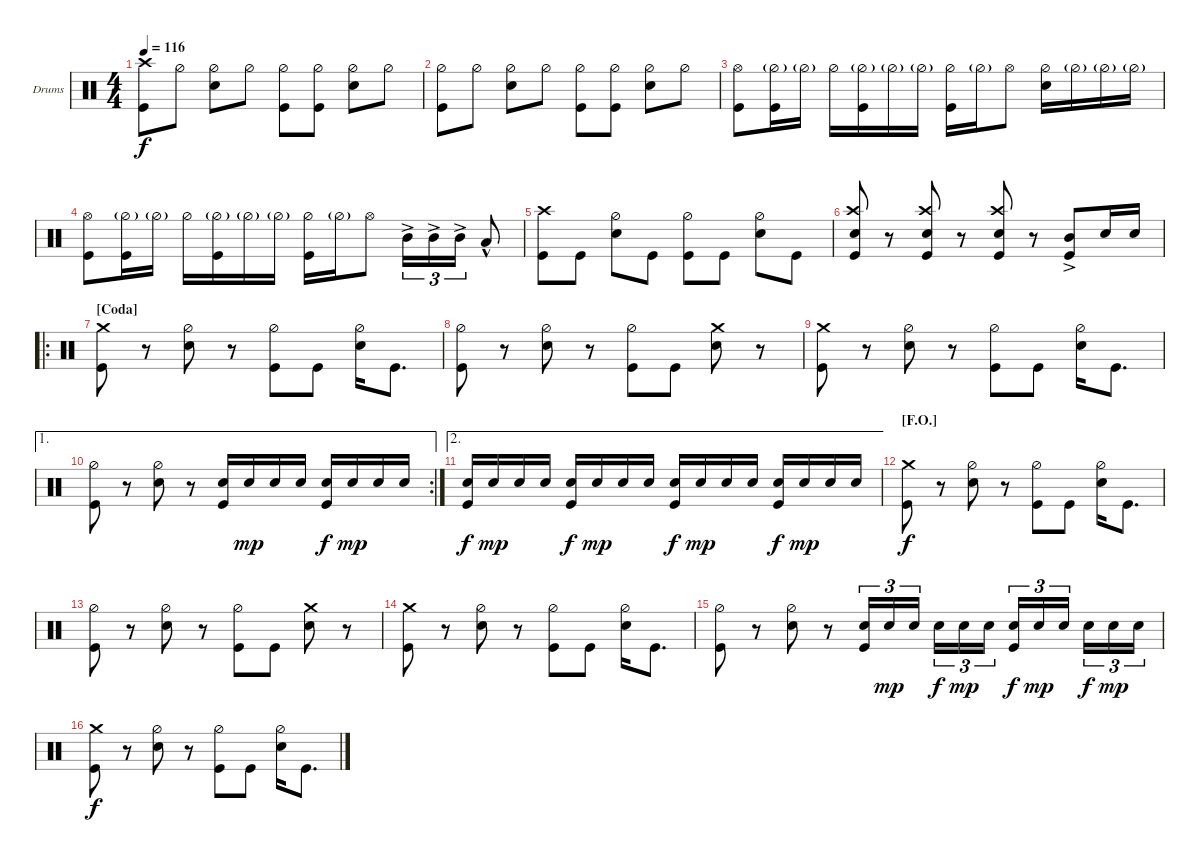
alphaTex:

\bracketExtendMode nobrackets
\firstSystemTrackNameOrientation horizontal
\otherSystemsTrackNameOrientation horizontal
\track ("Drumkit" "Drums") {instrument percussion}
\staff {score}
\articulation defaults
\ts (4 4)
\tempo 116
\clef neutral
\ks c
("Kick (hit)" "Crash high (hit)").8{dy f} "Hi-Hat (half)".8 ("Snare (hit) 2" "Hi-Hat (half)").8 "Hi-Hat (half)".8 ("Hi-Hat (half)" "Kick (hit)").8 ("Kick (hit)" "Hi-Hat (half)").8 ("Hi-Hat (half)" "Snare (hit) 2").8 "Hi-Hat (half)".8 |
("Hi-Hat (half)" "Kick (hit)").8 "Hi-Hat (half)".8 ("Snare (hit) 2" "Hi-Hat (half)").8 "Hi-Hat (half)".8 ("Hi-Hat (half)" "Kick (hit)").8 ("Kick (hit)" "Hi-Hat (half)").8 ("Hi-Hat (half)" "Snare (hit) 2").8 "Hi-Hat (half)".8 |
("Hi-Hat (open)" "Kick (hit)").8 ("Hi-Hat (half)"{g} "Kick (hit)").16 "Hi-Hat (half)"{g}.16 "Hi-Hat (half)".16 ("Kick (hit)" "Hi-Hat (half)"{g}).16 "Hi-Hat (half)"{g}.16 "Hi-Hat (half)"{g}.16 ("Hi-Hat (half)" "Kick (hit)").16 "Hi-Hat (half)"{g}.16 "Hi-Hat (open)".8 ("Hi-Hat (half)" "Snare (hit) 2").16 "Hi-Hat (half)"{g}.16 "Hi-Hat (half)"{g}.16 "Hi-Hat (half)"{g}.16 |
("Hi-Hat (open)" "Kick (hit)").8 ("Hi-Hat (half)"{g} "Kick (hit)").16 "Hi-Hat (half)"{g}.16 "Hi-Hat (half)".16 ("Kick (hit)" "Hi-Hat (half)"{g}).16 "Hi-Hat (half)"{g}.16 "Hi-Hat (half)"{g}.16 ("Hi-Hat (half)" "Kick (hit)").16 "Hi-Hat (half)"{g}.16 "Hi-Hat (open)".8 "Mid Tom (hit)"{ac}.16{tu (3 2)} "Mid Tom (hit)"{ac}.16{tu (3 2)} "Mid Tom (hit)"{ac}.16{tu (3 2)} "Low Tom (hit)"{hac}.8 |
("Kick (hit)" "Crash high (hit)").8 "Kick (hit)".8 ("Hi-Hat (half)" "Snare (hit) 2").8 "Kick (hit)".8 ("Hi-Hat (half)" "Kick (hit)").8 "Kick (hit)".8 ("Hi-Hat (half)" "Snare (hit) 2").8 "Kick (hit)".8 |
("Snare (hit) 2" "Kick (hit)" "Crash high (hit)").8 r.8 ("Snare (hit) 2" "Kick (hit)" "Crash high (hit)").8 r.8 ("Snare (hit) 2" "Kick (hit)" "Crash high (hit)").8 r.8 ("Kick (hit)" "Mid Tom (hit)"{ac}).8 "Snare (hit) 2".16 "Snare (hit) 2".16 |
\ro
\section ("" "[Coda]")
("Kick (hit)" "Crash medium (hit)").8 r.8 ("Snare (hit) 2" "Hi-Hat (half)").8 r.8 ("Hi-Hat (half)" "Kick (hit)").8 "Kick (hit)".8 ("Hi-Hat (half)" "Snare (hit) 2").16 "Kick (hit)".8{d} |
("Hi-Hat (half)" "Kick (hit)").8 r.8 ("Snare (hit) 2" "Hi-Hat (half)").8 r.8 ("Hi-Hat (half)" "Kick (hit)").8 "Kick (hit)".8 ("Snare (hit) 2" "Crash medium (hit)").8 r.8 |
("Kick (hit)" "Crash medium (hit)").8 r.8 ("Snare (hit) 2" "Hi-Hat (half)").8 r.8 ("Hi-Hat (half)" "Kick (hit)").8 "Kick (hit)".8 ("Hi-Hat (half)" "Snare (hit) 2").16 "Kick (hit)".8{d} |
\ae 1
\rc 2
("Hi-Hat (half)" "Kick (hit)").8 r.8 ("Snare (hit) 2" "Hi-Hat (half)").8 r.8 ("Snare (hit) 2" "Kick (hit)").16 "Snare (hit) 2".16{dy mp} "Snare (hit) 2".16 "Snare (hit) 2".16 ("Snare (hit) 2" "Kick (hit)").16{dy f} "Snare (hit) 2".16{dy mp} "Snare (hit) 2".16 "Snare (hit) 2".16 |
\ae 2
("Snare (hit) 2" "Kick (hit)").16{dy f} "Snare (hit) 2".16{dy mp} "Snare (hit) 2".16 "Snare (hit) 2".16 ("Snare (hit) 2" "Kick (hit)").16{dy f} "Snare (hit) 2".16{dy mp} "Snare (hit) 2".16 "Snare (hit) 2".16 ("Snare (hit) 2" "Kick (hit)").16{dy f} "Snare (hit) 2".16{dy mp} "Snare (hit) 2".16 "Snare (hit) 2".16 ("Snare (hit) 2" "Kick (hit)").16{dy f} "Snare (hit) 2".16{dy mp} "Snare (hit) 2".16 "Snare (hit) 2".16 |
\section ("" "[F.O.]")
("Kick (hit)" "Crash medium (hit)").8{dy f} r.8 ("Snare (hit) 2" "Hi-Hat (half)").8 r.8 ("Hi-Hat (half)" "Kick (hit)").8 "Kick (hit)".8 ("Hi-Hat (half)" "Snare (hit) 2").16 "Kick (hit)".8{d} |
("Hi-Hat (half)" "Kick (hit)").8 r.8 ("Snare (hit) 2" "Hi-Hat (half)").8 r.8 ("Hi-Hat (half)" "Kick (hit)").8 "Kick (hit)".8 ("Snare (hit) 2" "Crash medium (hit)").8 r.8 |
("Kick (hit)" "Crash medium (hit)").8 r.8 ("Snare (hit) 2" "Hi-Hat (half)").8 r.8 ("Hi-Hat (half)" "Kick (hit)").8 "Kick (hit)".8 ("Hi-Hat (half)" "Snare (hit) 2").16 "Kick (hit)".8{d} |
("Hi-Hat (half)" "Kick (hit)").8 r.8 ("Snare (hit) 2" "Hi-Hat (half)").8 r.8 ("Snare (hit) 2" "Kick (hit)").16{tu (3 2)} "Snare (hit) 2".16{tu (3 2) dy mp} "Snare (hit) 2".16{tu (3 2)} "Snare (hit) 2".16{tu (3 2) dy f} "Snare (hit) 2".16{tu (3 2) dy mp} "Snare (hit) 2".16{tu (3 2)} ("Snare (hit) 2" "Kick (hit)").16{tu (3 2) dy f} "Snare (hit) 2".16{tu (3 2) dy mp} "Snare (hit) 2".16{tu (3 2)} "Snare (hit) 2".16{tu (3 2) dy f} "Snare (hit) 2".16{tu (3 2) dy mp} "Snare (hit) 2".16{tu (3 2)} |
("Kick (hit)" "Crash medium (hit)").8{dy f} r.8 ("Snare (hit) 2" "Hi-Hat (half)").8 r.8 ("Hi-Hat (half)" "Kick (hit)").8 "Kick (hit)".8 ("Hi-Hat (half)" "Snare (hit) 2").16 "Kick (hit)".8{d}
